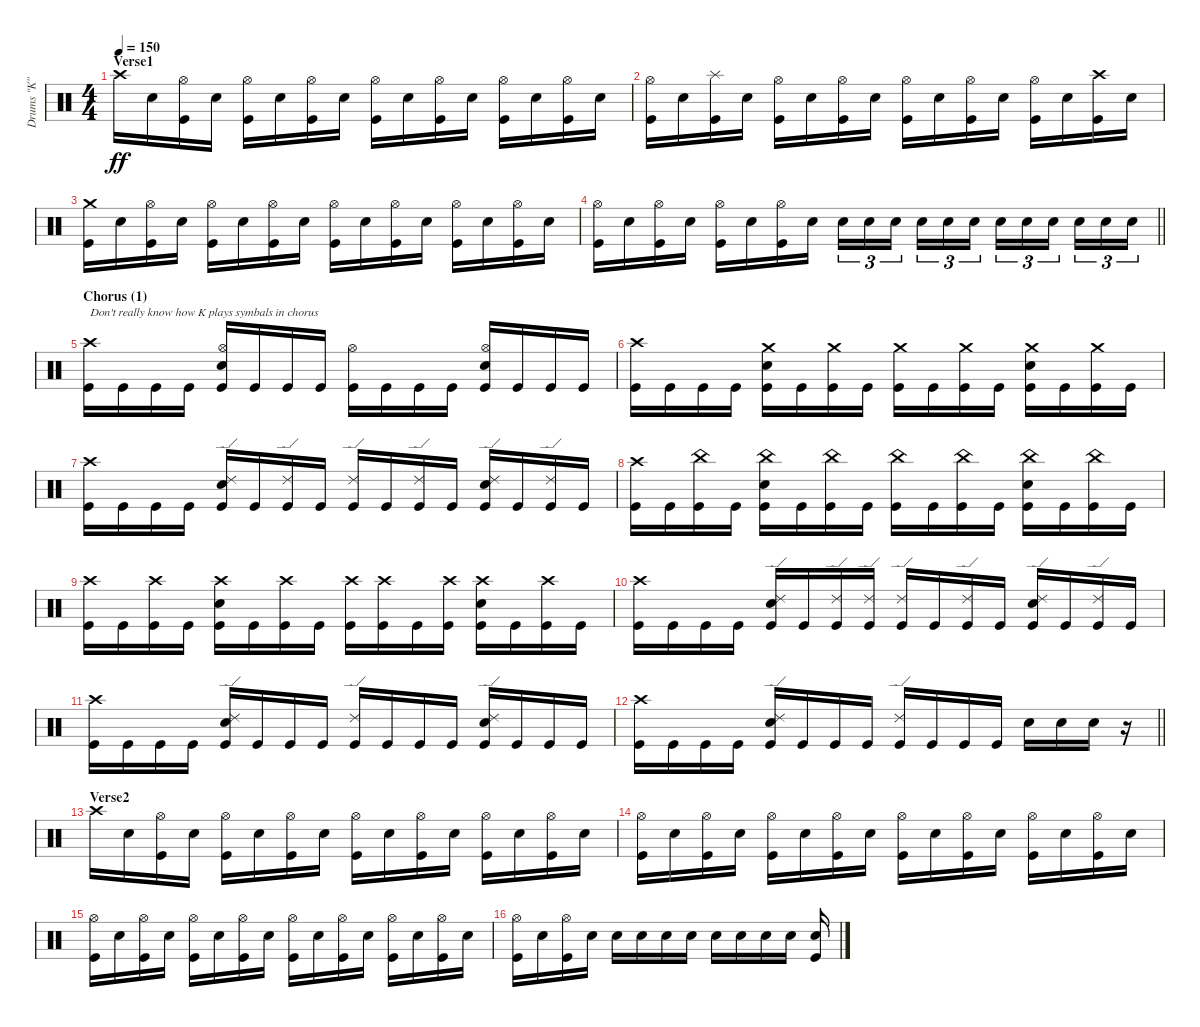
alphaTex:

\track ("Drums \"K\"" "Drums \"K\"") {instrument percussion}
\staff {score}
\articulation defaults
\ts (4 4)
\section ("" "Verse1")
\tempo 150
\clef neutral
\ks c "Crash high (hit)".16{dy ff} "Snare (hit) 2".16
("Hi-Hat (open)" "Kick (hit)").16 "Snare (hit) 2".16 ("Hi-Hat (open)" "Kick (hit)").16 "Snare (hit) 2".16 ("Hi-Hat (open)" "Kick (hit)").16 "Snare (hit) 2".16 ("Hi-Hat (open)" "Kick (hit)").16 "Snare (hit) 2".16 ("Hi-Hat (open)" "Kick (hit)").16 "Snare (hit) 2".16 ("Hi-Hat (open)" "Kick (hit)").16 "Snare (hit) 2".16 ("Hi-Hat (open)" "Kick (hit)").16 "Snare (hit) 2".16 |
("Hi-Hat (open)" "Kick (hit)").16 "Snare (hit) 2".16 ("Splash (hit)" "Kick (hit)").16 "Snare (hit) 2".16 ("Hi-Hat (open)" "Kick (hit)").16 "Snare (hit) 2".16 ("Hi-Hat (open)" "Kick (hit)").16 "Snare (hit) 2".16 ("Hi-Hat (open)" "Kick (hit)").16 "Snare (hit) 2".16 ("Hi-Hat (open)" "Kick (hit)").16 "Snare (hit) 2".16 ("Hi-Hat (open)" "Kick (hit)").16 "Snare (hit) 2".16 ("Crash high (hit)" "Kick (hit)").16 "Snare (hit) 2".16 |
("Crash medium (hit)" "Kick (hit)").16 "Snare (hit) 2".16 ("Hi-Hat (open)" "Kick (hit)").16 "Snare (hit) 2".16 ("Hi-Hat (open)" "Kick (hit)").16 "Snare (hit) 2".16 ("Hi-Hat (open)" "Kick (hit)").16 "Snare (hit) 2".16 ("Hi-Hat (open)" "Kick (hit)").16 "Snare (hit) 2".16 ("Hi-Hat (open)" "Kick (hit)").16 "Snare (hit) 2".16 ("Hi-Hat (open)" "Kick (hit)").16 "Snare (hit) 2".16 ("Hi-Hat (open)" "Kick (hit)").16 "Snare (hit) 2".16 |
\barLineRight lightlight
("Hi-Hat (open)" "Kick (hit)").16 "Snare (hit) 2".16 ("Hi-Hat (open)" "Kick (hit)").16 "Snare (hit) 2".16 ("Hi-Hat (open)" "Kick (hit)").16 "Snare (hit) 2".16 ("Hi-Hat (open)" "Kick (hit)").16 "Snare (hit) 2".16 "Snare (hit) 2".16{tu (3 2)} "Snare (hit) 2".16{tu (3 2)} "Snare (hit) 2".16{tu (3 2) beam splitsecondary} "Snare (hit) 2".16{tu (3 2)} "Snare (hit) 2".16{tu (3 2)} "Snare (hit) 2".16{tu (3 2)} "Snare (hit) 2".16{tu (3 2)} "Snare (hit) 2".16{tu (3 2)} "Snare (hit) 2".16{tu (3 2) beam splitsecondary} "Snare (hit) 2".16{tu (3 2)} "Snare (hit) 2".16{tu (3 2)} "Snare (hit) 2".16{tu (3 2)} |
\section ("" "Chorus (1)")
("Crash high (hit)" "Kick (hit)").16{txt "Don't really know how K plays symbals in chorus"} "Kick (hit)".16 "Kick (hit)".16 "Kick (hit)".16 ("Hi-Hat (open)" "Snare (hit) 2" "Kick (hit)").16 "Kick (hit)".16 "Kick (hit)".16 "Kick (hit)".16 ("Hi-Hat (open)" "Kick (hit)").16 "Kick (hit)".16 "Kick (hit)".16 "Kick (hit)".16 ("Hi-Hat (open)" "Snare (hit) 2" "Kick (hit)").16 "Kick (hit)".16 "Kick (hit)".16 "Kick (hit)".16 |
("Crash high (hit)" "Kick (hit)").16 "Kick (hit)".16 "Kick (hit)".16 "Kick (hit)".16 ("Crash medium (hit)" "Snare (hit) 2" "Kick (hit)").16 "Kick (hit)".16 ("Crash medium (hit)" "Kick (hit)").16 "Kick (hit)".16 ("Crash medium (hit)" "Kick (hit)").16 "Kick (hit)".16 ("Crash medium (hit)" "Kick (hit)").16 "Kick (hit)".16 ("Crash medium (hit)" "Snare (hit) 2" "Kick (hit)").16 "Kick (hit)".16 ("Crash medium (hit)" "Kick (hit)").16 "Kick (hit)".16 |
("Crash high (hit)" "Kick (hit)").16 "Kick (hit)".16 "Kick (hit)".16 "Kick (hit)".16 ("Ride (edge) 2" "Snare (hit) 2" "Kick (hit)").16 "Kick (hit)".16 ("Ride (edge) 2" "Kick (hit)").16 "Kick (hit)".16 ("Ride (edge) 2" "Kick (hit)").16 "Kick (hit)".16 ("Ride (edge) 2" "Kick (hit)").16 "Kick (hit)".16 ("Ride (edge) 2" "Snare (hit) 2" "Kick (hit)").16 "Kick (hit)".16 ("Ride (edge) 2" "Kick (hit)").16 "Kick (hit)".16 |
("Crash high (hit)" "Kick (hit)").16 "Kick (hit)".16 ("China (hit)" "Kick (hit)").16 "Kick (hit)".16 ("China (hit)" "Snare (hit) 2" "Kick (hit)").16 "Kick (hit)".16 ("China (hit)" "Kick (hit)").16 "Kick (hit)".16 ("China (hit)" "Kick (hit)").16 "Kick (hit)".16 ("China (hit)" "Kick (hit)").16 "Kick (hit)".16 ("China (hit)" "Snare (hit) 2" "Kick (hit)").16 "Kick (hit)".16 ("China (hit)" "Kick (hit)").16 "Kick (hit)".16 |
("Crash high (hit)" "Kick (hit)").16 "Kick (hit)".16 ("Crash high (hit)" "Kick (hit)").16 "Kick (hit)".16 ("Crash high (hit)" "Snare (hit) 2" "Kick (hit)").16 "Kick (hit)".16 ("Crash high (hit)" "Kick (hit)").16 "Kick (hit)".16 ("Crash high (hit)" "Kick (hit)").16 ("Crash high (hit)" "Kick (hit)").16 "Kick (hit)".16 ("Crash high (hit)" "Kick (hit)").16 ("Crash high (hit)" "Snare (hit) 2" "Kick (hit)").16 "Kick (hit)".16 ("Crash high (hit)" "Kick (hit)").16 "Kick (hit)".16 |
("Crash high (hit)" "Kick (hit)").16 "Kick (hit)".16 "Kick (hit)".16 "Kick (hit)".16 ("Ride (edge) 2" "Snare (hit) 2" "Kick (hit)").16 "Kick (hit)".16 ("Ride (edge) 2" "Kick (hit)").16 ("Ride (edge) 2" "Kick (hit)").16 ("Ride (edge) 2" "Kick (hit)").16 "Kick (hit)".16 ("Ride (edge) 2" "Kick (hit)").16 "Kick (hit)".16 ("Ride (edge) 2" "Snare (hit) 2" "Kick (hit)").16 "Kick (hit)".16 ("Ride (edge) 2" "Kick (hit)").16 "Kick (hit)".16 |
("Crash high (hit)" "Kick (hit)").16 "Kick (hit)".16 "Kick (hit)".16 "Kick (hit)".16 ("Ride (edge) 2" "Snare (hit) 2" "Kick (hit)").16 "Kick (hit)".16 "Kick (hit)".16 "Kick (hit)".16 ("Ride (edge) 2" "Kick (hit)").16 "Kick (hit)".16 "Kick (hit)".16 "Kick (hit)".16 ("Ride (edge) 2" "Snare (hit) 2" "Kick (hit)").16 "Kick (hit)".16 "Kick (hit)".16 "Kick (hit)".16 |
\barLineRight lightlight
("Crash high (hit)" "Kick (hit)").16 "Kick (hit)".16 "Kick (hit)".16 "Kick (hit)".16 ("Ride (edge) 2" "Snare (hit) 2" "Kick (hit)").16 "Kick (hit)".16 "Kick (hit)".16 "Kick (hit)".16 ("Ride (edge) 2" "Kick (hit)").16 "Kick (hit)".16 "Kick (hit)".16 "Kick (hit)".16 "Snare (hit) 2".16 "Snare (hit) 2".16 "Snare (hit) 2".16 r.16 |
\section ("" "Verse2")
"Crash high (hit)".16 "Snare (hit) 2".16 ("Hi-Hat (open)" "Kick (hit)").16 "Snare (hit) 2".16 ("Hi-Hat (open)" "Kick (hit)").16 "Snare (hit) 2".16 ("Hi-Hat (open)" "Kick (hit)").16 "Snare (hit) 2".16 ("Hi-Hat (open)" "Kick (hit)").16 "Snare (hit) 2".16 ("Hi-Hat (open)" "Kick (hit)").16 "Snare (hit) 2".16 ("Hi-Hat (open)" "Kick (hit)").16 "Snare (hit) 2".16 ("Hi-Hat (open)" "Kick (hit)").16 "Snare (hit) 2".16 |
("Hi-Hat (open)" "Kick (hit)").16 "Snare (hit) 2".16 ("Hi-Hat (open)" "Kick (hit)").16 "Snare (hit) 2".16 ("Hi-Hat (open)" "Kick (hit)").16 "Snare (hit) 2".16 ("Hi-Hat (open)" "Kick (hit)").16 "Snare (hit) 2".16 ("Hi-Hat (open)" "Kick (hit)").16 "Snare (hit) 2".16 ("Hi-Hat (open)" "Kick (hit)").16 "Snare (hit) 2".16 ("Hi-Hat (open)" "Kick (hit)").16 "Snare (hit) 2".16 ("Hi-Hat (open)" "Kick (hit)").16 "Snare (hit) 2".16 |
("Hi-Hat (open)" "Kick (hit)").16 "Snare (hit) 2".16 ("Hi-Hat (open)" "Kick (hit)").16 "Snare (hit) 2".16 ("Hi-Hat (open)" "Kick (hit)").16 "Snare (hit) 2".16 ("Hi-Hat (open)" "Kick (hit)").16 "Snare (hit) 2".16 ("Hi-Hat (open)" "Kick (hit)").16 "Snare (hit) 2".16 ("Hi-Hat (open)" "Kick (hit)").16 "Snare (hit) 2".16 ("Hi-Hat (open)" "Kick (hit)").16 "Snare (hit) 2".16 ("Hi-Hat (open)" "Kick (hit)").16 "Snare (hit) 2".16 |
("Hi-Hat (open)" "Kick (hit)").16 "Snare (hit) 2".16 ("Hi-Hat (open)" "Kick (hit)").16 "Snare (hit) 2".16 "Snare (hit) 2".16 "Snare (hit) 2".16 "Snare (hit) 2".16 "Snare (hit) 2".16 "Snare (hit) 2".16 "Snare (hit) 2".16 "Snare (hit) 2".16 "Snare (hit) 2".16 ("Snare (hit) 2" "Kick (hit)").16
